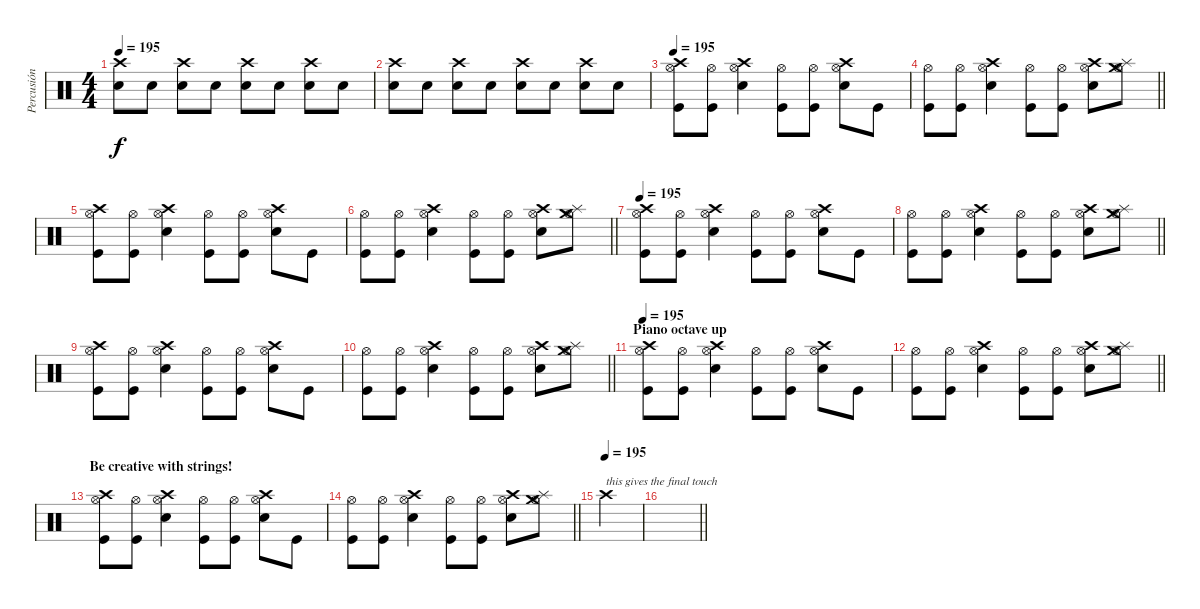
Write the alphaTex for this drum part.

\track ("Percusión" "Percusión") {instrument percussion}
\staff {score}
\articulation defaults
\ts (4 4)
\tempo 195
\clef neutral
\ks c
("Crash high (hit)" "Electric Snare (hit)").8{dy f} "Electric Snare (hit)".8 ("Crash high (hit)" "Electric Snare (hit)").8 "Electric Snare (hit)".8 ("Crash high (hit)" "Electric Snare (hit)").8 "Electric Snare (hit)".8 ("Crash high (hit)" "Electric Snare (hit)").8 "Electric Snare (hit)".8 |
("Crash high (hit)" "Electric Snare (hit)").8 "Electric Snare (hit)".8 ("Crash high (hit)" "Electric Snare (hit)").8 "Electric Snare (hit)".8 ("Crash high (hit)" "Electric Snare (hit)").8 "Electric Snare (hit)".8 ("Crash high (hit)" "Electric Snare (hit)").8 "Electric Snare (hit)".8 |
\tempo 195
("Crash high (hit)" "Kick (hit)" "Hi-Hat (open)").8 ("Kick (hit)" "Hi-Hat (open)").8 ("Electric Snare (hit)" "Crash high (hit)" "Hi-Hat (open)").4 ("Kick (hit)" "Hi-Hat (open)").8 ("Kick (hit)" "Hi-Hat (open)").8 ("Electric Snare (hit)" "Crash high (hit)" "Hi-Hat (open)").8 "Kick (hit)".8 |
\barLineRight lightlight
("Kick (hit)" "Hi-Hat (open)").8 ("Kick (hit)" "Hi-Hat (open)").8 ("Electric Snare (hit)" "Crash high (hit)" "Hi-Hat (open)").4 ("Kick (hit)" "Hi-Hat (open)").8 ("Kick (hit)" "Hi-Hat (open)").8 ("Electric Snare (hit)" "Crash high (hit)" "Hi-Hat (open)").8 ("Splash (hit)" "Hi-Hat (open)" "Crash medium (hit)").8 |
("Crash high (hit)" "Kick (hit)" "Hi-Hat (open)").8 ("Kick (hit)" "Hi-Hat (open)").8 ("Electric Snare (hit)" "Crash high (hit)" "Hi-Hat (open)").4 ("Kick (hit)" "Hi-Hat (open)").8 ("Kick (hit)" "Hi-Hat (open)").8 ("Electric Snare (hit)" "Crash high (hit)" "Hi-Hat (open)").8 "Kick (hit)".8 |
\barLineRight lightlight
("Kick (hit)" "Hi-Hat (open)").8 ("Kick (hit)" "Hi-Hat (open)").8 ("Electric Snare (hit)" "Crash high (hit)" "Hi-Hat (open)").4 ("Kick (hit)" "Hi-Hat (open)").8 ("Kick (hit)" "Hi-Hat (open)").8 ("Electric Snare (hit)" "Crash high (hit)" "Hi-Hat (open)").8 ("Splash (hit)" "Hi-Hat (open)" "Crash medium (hit)").8 |
\tempo 195
("Crash high (hit)" "Kick (hit)" "Hi-Hat (open)").8 ("Kick (hit)" "Hi-Hat (open)").8 ("Electric Snare (hit)" "Crash high (hit)" "Hi-Hat (open)").4 ("Kick (hit)" "Hi-Hat (open)").8 ("Kick (hit)" "Hi-Hat (open)").8 ("Electric Snare (hit)" "Crash high (hit)" "Hi-Hat (open)").8 "Kick (hit)".8 |
\barLineRight lightlight
("Kick (hit)" "Hi-Hat (open)").8 ("Kick (hit)" "Hi-Hat (open)").8 ("Electric Snare (hit)" "Crash high (hit)" "Hi-Hat (open)").4 ("Kick (hit)" "Hi-Hat (open)").8 ("Kick (hit)" "Hi-Hat (open)").8 ("Electric Snare (hit)" "Crash high (hit)" "Hi-Hat (open)").8 ("Splash (hit)" "Hi-Hat (open)" "Crash medium (hit)").8 |
("Crash high (hit)" "Kick (hit)" "Hi-Hat (open)").8 ("Kick (hit)" "Hi-Hat (open)").8 ("Electric Snare (hit)" "Crash high (hit)" "Hi-Hat (open)").4 ("Kick (hit)" "Hi-Hat (open)").8 ("Kick (hit)" "Hi-Hat (open)").8 ("Electric Snare (hit)" "Crash high (hit)" "Hi-Hat (open)").8 "Kick (hit)".8 |
\barLineRight lightlight
("Kick (hit)" "Hi-Hat (open)").8 ("Kick (hit)" "Hi-Hat (open)").8 ("Electric Snare (hit)" "Crash high (hit)" "Hi-Hat (open)").4 ("Kick (hit)" "Hi-Hat (open)").8 ("Kick (hit)" "Hi-Hat (open)").8 ("Electric Snare (hit)" "Crash high (hit)" "Hi-Hat (open)").8 ("Splash (hit)" "Hi-Hat (open)" "Crash medium (hit)").8 |
\section ("" "Piano octave up")
\tempo 195
("Crash high (hit)" "Kick (hit)" "Hi-Hat (open)").8 ("Kick (hit)" "Hi-Hat (open)").8 ("Electric Snare (hit)" "Crash high (hit)" "Hi-Hat (open)").4 ("Kick (hit)" "Hi-Hat (open)").8 ("Kick (hit)" "Hi-Hat (open)").8 ("Electric Snare (hit)" "Crash high (hit)" "Hi-Hat (open)").8 "Kick (hit)".8 |
\barLineRight lightlight
("Kick (hit)" "Hi-Hat (open)").8 ("Kick (hit)" "Hi-Hat (open)").8 ("Electric Snare (hit)" "Crash high (hit)" "Hi-Hat (open)").4 ("Kick (hit)" "Hi-Hat (open)").8 ("Kick (hit)" "Hi-Hat (open)").8 ("Electric Snare (hit)" "Crash high (hit)" "Hi-Hat (open)").8 ("Splash (hit)" "Hi-Hat (open)" "Crash medium (hit)").8 |
\section ("" "Be creative with strings!")
("Crash high (hit)" "Kick (hit)" "Hi-Hat (open)").8 ("Kick (hit)" "Hi-Hat (open)").8 ("Electric Snare (hit)" "Crash high (hit)" "Hi-Hat (open)").4 ("Kick (hit)" "Hi-Hat (open)").8 ("Kick (hit)" "Hi-Hat (open)").8 ("Electric Snare (hit)" "Crash high (hit)" "Hi-Hat (open)").8 "Kick (hit)".8 |
\barLineRight lightlight
("Kick (hit)" "Hi-Hat (open)").8 ("Kick (hit)" "Hi-Hat (open)").8 ("Electric Snare (hit)" "Crash high (hit)" "Hi-Hat (open)").4 ("Kick (hit)" "Hi-Hat (open)").8 ("Kick (hit)" "Hi-Hat (open)").8 ("Electric Snare (hit)" "Crash high (hit)" "Hi-Hat (open)").8 ("Splash (hit)" "Hi-Hat (open)" "Crash medium (hit)").8 |
\tempo (195)
"Crash high (hit)".4{txt "this gives the final touch"} |
\barLineRight lightlight
